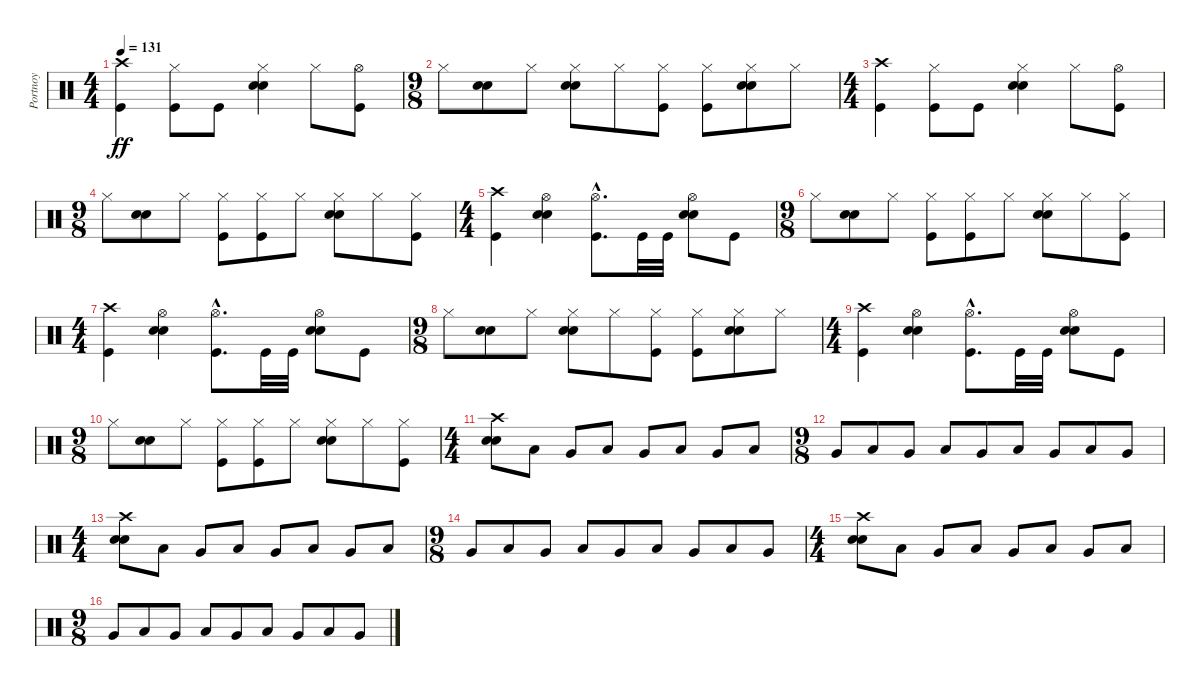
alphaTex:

\track ("Portnoy" "Portnoy") {instrument percussion}
\staff {score}
\articulation defaults
\ts (4 4)
\tempo 131
\clef neutral
\ks c
("Crash high (hit)" "Kick (hit)").4{dy ff} ("Hi-Hat (closed)" "Kick (hit)").8 "Kick (hit)".8 ("Hi-Hat (closed)" "Snare (hit) 2" "Electric Snare (hit)").4 "Hi-Hat (closed)".8 ("Hi-Hat (open)" "Kick (hit)").8 |
\ts (9 8)
"Hi-Hat (closed)".8 ("Snare (hit) 2" "Electric Snare (hit)").8 "Hi-Hat (closed)".8 ("Hi-Hat (closed)" "Snare (hit) 2" "Electric Snare (hit)").8 "Hi-Hat (closed)".8 ("Hi-Hat (closed)" "Kick (hit)").8 ("Hi-Hat (closed)" "Kick (hit)").8 ("Hi-Hat (closed)" "Snare (hit) 2" "Electric Snare (hit)").8 "Hi-Hat (closed)".8 |
\ts (4 4)
("Crash high (hit)" "Kick (hit)").4 ("Hi-Hat (closed)" "Kick (hit)").8 "Kick (hit)".8 ("Hi-Hat (closed)" "Snare (hit) 2" "Electric Snare (hit)").4 "Hi-Hat (closed)".8 ("Hi-Hat (open)" "Kick (hit)").8 |
\ts (9 8)
"Hi-Hat (closed)".8 ("Snare (hit) 2" "Electric Snare (hit)").8 "Hi-Hat (closed)".8 ("Hi-Hat (closed)" "Kick (hit)").8 ("Hi-Hat (closed)" "Kick (hit)").8 "Hi-Hat (closed)".8 ("Hi-Hat (closed)" "Snare (hit) 2" "Electric Snare (hit)").8 "Hi-Hat (closed)".8 ("Hi-Hat (closed)" "Kick (hit)").8 |
\ts (4 4)
("Crash high (hit)" "Kick (hit)").4 ("Hi-Hat (open)" "Snare (hit) 2" "Electric Snare (hit)").4 ("Hi-Hat (open)"{hac} "Kick (hit)"{hac}).8{d} "Kick (hit)".32 "Kick (hit)".32 ("Hi-Hat (open)" "Snare (hit) 2" "Electric Snare (hit)").8 "Kick (hit)".8 |
\ts (9 8)
"Hi-Hat (closed)".8 ("Snare (hit) 2" "Electric Snare (hit)").8 "Hi-Hat (closed)".8 ("Hi-Hat (closed)" "Kick (hit)").8 ("Hi-Hat (closed)" "Kick (hit)").8 "Hi-Hat (closed)".8 ("Hi-Hat (closed)" "Snare (hit) 2" "Electric Snare (hit)").8 "Hi-Hat (closed)".8 ("Hi-Hat (closed)" "Kick (hit)").8 |
\ts (4 4)
("Crash high (hit)" "Kick (hit)").4 ("Hi-Hat (open)" "Snare (hit) 2" "Electric Snare (hit)").4 ("Hi-Hat (open)"{hac} "Kick (hit)"{hac}).8{d} "Kick (hit)".32 "Kick (hit)".32 ("Hi-Hat (open)" "Snare (hit) 2" "Electric Snare (hit)").8 "Kick (hit)".8 |
\ts (9 8)
"Hi-Hat (closed)".8 ("Snare (hit) 2" "Electric Snare (hit)").8 "Hi-Hat (closed)".8 ("Hi-Hat (closed)" "Snare (hit) 2" "Electric Snare (hit)").8 "Hi-Hat (closed)".8 ("Hi-Hat (closed)" "Kick (hit)").8 ("Hi-Hat (closed)" "Kick (hit)").8 ("Hi-Hat (closed)" "Snare (hit) 2" "Electric Snare (hit)").8 "Hi-Hat (closed)".8 |
\ts (4 4)
("Crash high (hit)" "Kick (hit)").4 ("Hi-Hat (open)" "Snare (hit) 2" "Electric Snare (hit)").4 ("Hi-Hat (open)"{hac} "Kick (hit)"{hac}).8{d} "Kick (hit)".32 "Kick (hit)".32 ("Hi-Hat (open)" "Snare (hit) 2" "Electric Snare (hit)").8 "Kick (hit)".8 |
\ts (9 8)
"Hi-Hat (closed)".8 ("Snare (hit) 2" "Electric Snare (hit)").8 "Hi-Hat (closed)".8 ("Hi-Hat (closed)" "Kick (hit)").8 ("Hi-Hat (closed)" "Kick (hit)").8 "Hi-Hat (closed)".8 ("Hi-Hat (closed)" "Snare (hit) 2" "Electric Snare (hit)").8 "Hi-Hat (closed)".8 ("Hi-Hat (closed)" "Kick (hit)").8 |
\ts (4 4)
("Crash high (hit)" "Electric Snare (hit)" "Snare (hit) 2").8 "Low Floor Tom (hit)".8 "Very Low Tom (hit)".8 "Low Floor Tom (hit)".8 "Very Low Tom (hit)".8 "Low Floor Tom (hit)".8 "Very Low Tom (hit)".8 "Low Floor Tom (hit)".8 |
\ts (9 8)
"Very Low Tom (hit)".8 "Low Floor Tom (hit)".8 "Very Low Tom (hit)".8 "Low Floor Tom (hit)".8 "Very Low Tom (hit)".8 "Low Floor Tom (hit)".8 "Very Low Tom (hit)".8 "Low Floor Tom (hit)".8 "Very Low Tom (hit)".8 |
\ts (4 4)
("Crash high (hit)" "Snare (hit) 2" "Electric Snare (hit)").8 "Low Floor Tom (hit)".8 "Very Low Tom (hit)".8 "Low Floor Tom (hit)".8 "Very Low Tom (hit)".8 "Low Floor Tom (hit)".8 "Very Low Tom (hit)".8 "Low Floor Tom (hit)".8 |
\ts (9 8)
"Very Low Tom (hit)".8 "Low Floor Tom (hit)".8 "Very Low Tom (hit)".8 "Low Floor Tom (hit)".8 "Very Low Tom (hit)".8 "Low Floor Tom (hit)".8 "Very Low Tom (hit)".8 "Low Floor Tom (hit)".8 "Very Low Tom (hit)".8 |
\ts (4 4)
("Crash high (hit)" "Snare (hit) 2" "Electric Snare (hit)").8 "Low Floor Tom (hit)".8 "Very Low Tom (hit)".8 "Low Floor Tom (hit)".8 "Very Low Tom (hit)".8 "Low Floor Tom (hit)".8 "Very Low Tom (hit)".8 "Low Floor Tom (hit)".8 |
\ts (9 8)
"Very Low Tom (hit)".8 "Low Floor Tom (hit)".8 "Very Low Tom (hit)".8 "Low Floor Tom (hit)".8 "Very Low Tom (hit)".8 "Low Floor Tom (hit)".8 "Very Low Tom (hit)".8 "Low Floor Tom (hit)".8 "Very Low Tom (hit)".8
